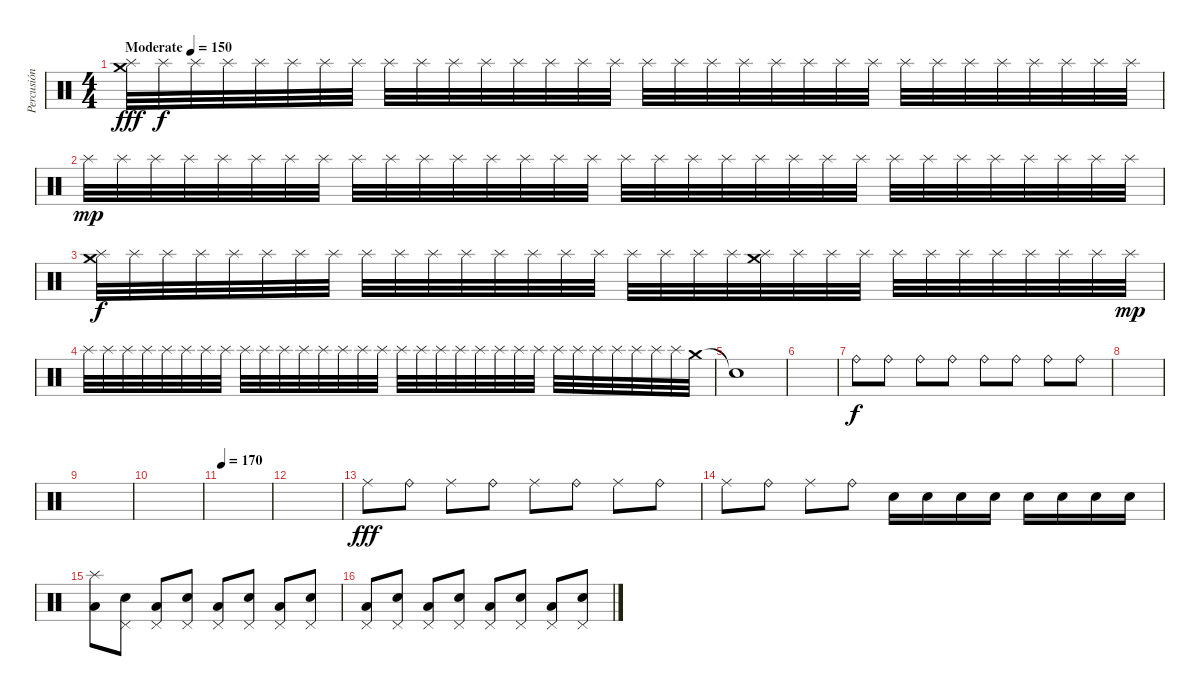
\track ("Percusión" "Percusión") {instrument percussion}
\staff {score}
\articulation defaults
\ts (4 4)
\tempo (150 "Moderate")
\clef neutral
\ks c
("Crash medium (hit)" "Splash (hit)").32{dy fff} "Splash (hit)".32{dy f} "Splash (hit)".32 "Splash (hit)".32 "Splash (hit)".32 "Splash (hit)".32 "Splash (hit)".32 "Splash (hit)".32 "Splash (hit)".32 "Splash (hit)".32 "Splash (hit)".32 "Splash (hit)".32 "Splash (hit)".32 "Splash (hit)".32 "Splash (hit)".32 "Splash (hit)".32 "Splash (hit)".32 "Splash (hit)".32 "Splash (hit)".32 "Splash (hit)".32 "Splash (hit)".32 "Splash (hit)".32 "Splash (hit)".32 "Splash (hit)".32 "Splash (hit)".32 "Splash (hit)".32 "Splash (hit)".32 "Splash (hit)".32 "Splash (hit)".32 "Splash (hit)".32 "Splash (hit)".32 "Splash (hit)".32 |
"Splash (hit)".32{dy mp} "Splash (hit)".32 "Splash (hit)".32 "Splash (hit)".32 "Splash (hit)".32 "Splash (hit)".32 "Splash (hit)".32 "Splash (hit)".32 "Splash (hit)".32 "Splash (hit)".32 "Splash (hit)".32 "Splash (hit)".32 "Splash (hit)".32 "Splash (hit)".32 "Splash (hit)".32 "Splash (hit)".32 "Splash (hit)".32 "Splash (hit)".32 "Splash (hit)".32 "Splash (hit)".32 "Splash (hit)".32 "Splash (hit)".32 "Splash (hit)".32 "Splash (hit)".32 "Splash (hit)".32 "Splash (hit)".32 "Splash (hit)".32 "Splash (hit)".32 "Splash (hit)".32 "Splash (hit)".32 "Splash (hit)".32 "Splash (hit)".32 |
("Crash medium (hit)" "Splash (hit)").32{dy f} "Splash (hit)".32 "Splash (hit)".32 "Splash (hit)".32 "Splash (hit)".32 "Splash (hit)".32 "Splash (hit)".32 "Splash (hit)".32 "Splash (hit)".32 "Splash (hit)".32 "Splash (hit)".32 "Splash (hit)".32 "Splash (hit)".32 "Splash (hit)".32 "Splash (hit)".32 "Splash (hit)".32 "Splash (hit)".32 "Splash (hit)".32 "Splash (hit)".32 "Splash (hit)".32 ("Crash medium (hit)" "Splash (hit)").32 "Splash (hit)".32 "Splash (hit)".32 "Splash (hit)".32 "Splash (hit)".32 "Splash (hit)".32 "Splash (hit)".32 "Splash (hit)".32 "Splash (hit)".32 "Splash (hit)".32 "Splash (hit)".32 "Splash (hit)".32{dy mp} |
"Splash (hit)".32 "Splash (hit)".32 "Splash (hit)".32 "Splash (hit)".32 "Splash (hit)".32 "Splash (hit)".32 "Splash (hit)".32 "Splash (hit)".32 "Splash (hit)".32 "Splash (hit)".32 "Splash (hit)".32 "Splash (hit)".32 "Splash (hit)".32 "Splash (hit)".32 "Splash (hit)".32 "Splash (hit)".32 "Splash (hit)".32 "Splash (hit)".32 "Splash (hit)".32 "Splash (hit)".32 "Splash (hit)".32 "Splash (hit)".32 "Splash (hit)".32 "Splash (hit)".32 "Splash (hit)".32 "Splash (hit)".32 "Splash (hit)".32 "Splash (hit)".32 "Splash (hit)".32 "Splash (hit)".32 "Splash (hit)".32 "Crash medium (hit)".32 |
"Snare (hit)"{t}.1 |
|
"Ride (bell)".8{dy f} "Ride (bell)".8 "Ride (bell)".8 "Ride (bell)".8 "Ride (bell)".8 "Ride (bell)".8 "Ride (bell)".8 "Ride (bell)".8 |
|
|
|
\tempo 170
|
|
"Ride (middle)".8{dy fff} "Ride (bell)".8 "Ride (middle)".8 "Ride (bell)".8 "Ride (middle)".8 "Ride (bell)".8 "Ride (middle)".8 "Ride (bell)".8 |
"Ride (middle)".8 "Ride (bell)".8 "Ride (middle)".8 "Ride (bell)".8 "Snare (hit) 2".16 "Snare (hit) 2".16 "Snare (hit) 2".16 "Snare (hit) 2".16 "Snare (hit) 2".16 "Snare (hit) 2".16 "Snare (hit) 2".16 "Snare (hit) 2".16 |
("Splash (hit)" "Low Tom (hit)").8 ("Pedal Hi-Hat (hit)" "Electric Snare (hit)").8 ("Pedal Hi-Hat (hit)" "Low Tom (hit)").8 ("Pedal Hi-Hat (hit)" "Electric Snare (hit)").8 ("Pedal Hi-Hat (hit)" "Low Tom (hit)").8 ("Pedal Hi-Hat (hit)" "Electric Snare (hit)").8 ("Pedal Hi-Hat (hit)" "Low Tom (hit)").8 ("Pedal Hi-Hat (hit)" "Electric Snare (hit)").8 |
("Pedal Hi-Hat (hit)" "Low Tom (hit)").8 ("Pedal Hi-Hat (hit)" "Electric Snare (hit)").8 ("Pedal Hi-Hat (hit)" "Low Tom (hit)").8 ("Pedal Hi-Hat (hit)" "Electric Snare (hit)").8 ("Pedal Hi-Hat (hit)" "Low Tom (hit)").8 ("Pedal Hi-Hat (hit)" "Electric Snare (hit)").8 ("Pedal Hi-Hat (hit)" "Low Tom (hit)").8 ("Pedal Hi-Hat (hit)" "Electric Snare (hit)").8
